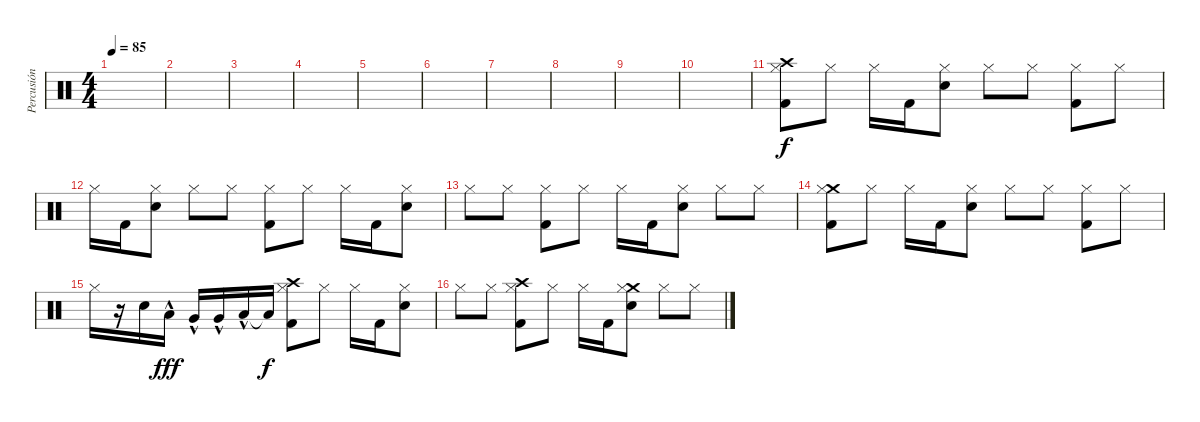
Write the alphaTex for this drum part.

\track ("Percusión" "Percusión") {instrument percussion}
\staff {score}
\articulation defaults
\ts (4 4)
\tempo 85
\clef neutral
\ks c
|
|
|
|
|
|
|
|
|
|
("Crash high (hit)" "Hi-Hat (closed)" "Kick (hit) 2").8 "Hi-Hat (closed)".8 "Hi-Hat (closed)".16 "Kick (hit) 2".16 ("Hi-Hat (closed)" "Snare (hit) 2").8 "Hi-Hat (closed)".8 "Hi-Hat (closed)".8 ("Hi-Hat (closed)" "Kick (hit) 2").8 "Hi-Hat (closed)".8 |
"Hi-Hat (closed)".16 "Kick (hit) 2".16 ("Hi-Hat (closed)" "Snare (hit) 2").8 "Hi-Hat (closed)".8 "Hi-Hat (closed)".8 ("Hi-Hat (closed)" "Kick (hit) 2").8 "Hi-Hat (closed)".8 "Hi-Hat (closed)".16 "Kick (hit) 2".16 ("Hi-Hat (closed)" "Snare (hit) 2").8 |
"Hi-Hat (closed)".8 "Hi-Hat (closed)".8 ("Hi-Hat (closed)" "Kick (hit) 2").8 "Hi-Hat (closed)".8 "Hi-Hat (closed)".16 "Kick (hit) 2".16 ("Hi-Hat (closed)" "Snare (hit) 2").8 "Hi-Hat (closed)".8 "Hi-Hat (closed)".8 |
("Crash medium (hit)" "Hi-Hat (closed)" "Kick (hit) 2").8 "Hi-Hat (closed)".8 "Hi-Hat (closed)".16 "Kick (hit) 2".16 ("Hi-Hat (closed)" "Snare (hit) 2").8 "Hi-Hat (closed)".8 "Hi-Hat (closed)".8 ("Hi-Hat (closed)" "Kick (hit) 2").8 "Hi-Hat (closed)".8 |
"Hi-Hat (closed)".16 r.16 "Snare (hit) 2".16 "Low Tom (hit)"{hac}.16{dy fff} "Very Low Tom (hit)"{hac}.16 "Very Low Tom (hit)"{hac}.16 "Low Floor Tom (hit)"{hac}.16 "Low Floor Tom (hit)"{t}.16{dy f} ("Crash high (hit)" "Hi-Hat (closed)" "Kick (hit) 2").8 "Hi-Hat (closed)".8 "Hi-Hat (closed)".16 "Kick (hit) 2".16 ("Hi-Hat (closed)" "Snare (hit) 2").8 |
"Hi-Hat (closed)".8 "Hi-Hat (closed)".8 ("Crash high (hit)" "Hi-Hat (closed)" "Kick (hit) 2").8 "Hi-Hat (closed)".8 "Hi-Hat (closed)".16 "Kick (hit) 2".16 ("Crash medium (hit)" "Hi-Hat (closed)" "Snare (hit) 2").8 "Hi-Hat (closed)".8 "Hi-Hat (closed)".8
